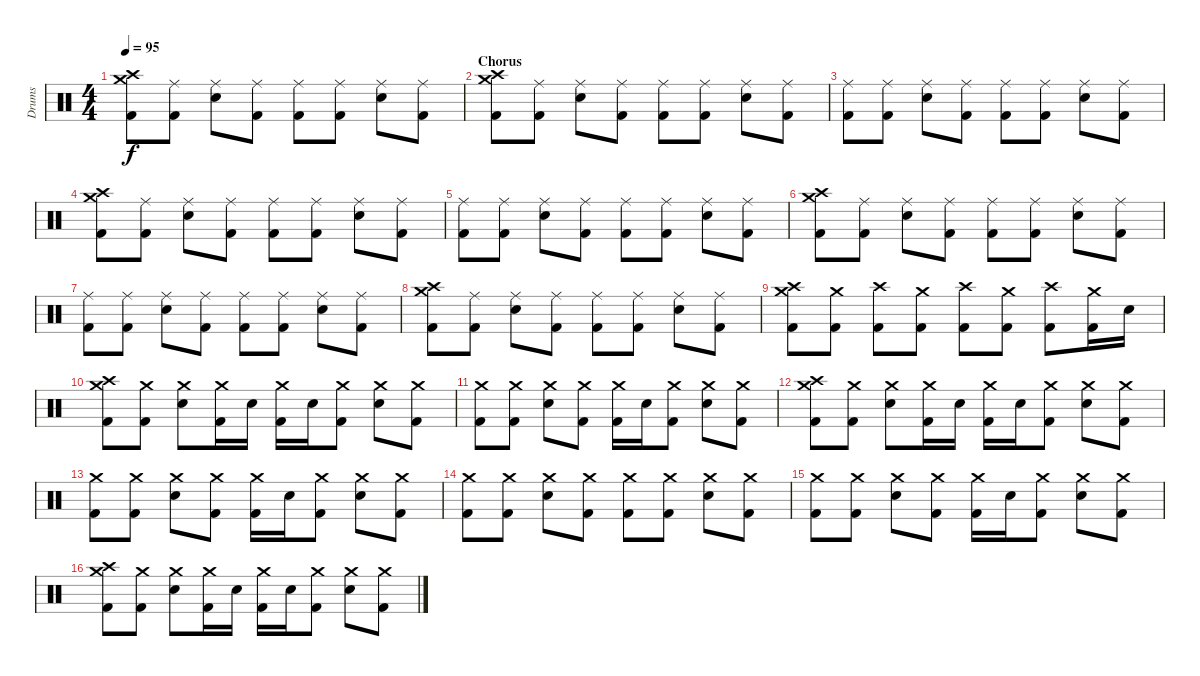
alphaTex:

\track ("Drums" "Drums") {instrument percussion}
\staff {score}
\articulation defaults
\ts (4 4)
\tempo 95
\clef neutral
\ks c
("Crash high (hit)" "Crash medium (hit)" "Kick (hit) 2").8{dy f} ("Ride (middle)" "Kick (hit) 2").8 ("Ride (middle)" "Snare (hit) 2").8 ("Ride (middle)" "Kick (hit) 2").8 ("Ride (middle)" "Kick (hit) 2").8 ("Ride (middle)" "Kick (hit) 2").8 ("Ride (middle)" "Snare (hit) 2").8 ("Ride (middle)" "Kick (hit) 2").8 |
\section ("" "Chorus")
("Crash high (hit)" "Crash medium (hit)" "Kick (hit) 2").8 ("Ride (middle)" "Kick (hit) 2").8 ("Ride (middle)" "Snare (hit) 2").8 ("Ride (middle)" "Kick (hit) 2").8 ("Ride (middle)" "Kick (hit) 2").8 ("Ride (middle)" "Kick (hit) 2").8 ("Ride (middle)" "Snare (hit) 2").8 ("Ride (middle)" "Kick (hit) 2").8 |
("Ride (middle)" "Kick (hit) 2").8 ("Ride (middle)" "Kick (hit) 2").8 ("Ride (middle)" "Snare (hit) 2").8 ("Ride (middle)" "Kick (hit) 2").8 ("Ride (middle)" "Kick (hit) 2").8 ("Ride (middle)" "Kick (hit) 2").8 ("Ride (middle)" "Snare (hit) 2").8 ("Ride (middle)" "Kick (hit) 2").8 |
("Crash high (hit)" "Crash medium (hit)" "Kick (hit) 2").8 ("Ride (middle)" "Kick (hit) 2").8 ("Ride (middle)" "Snare (hit) 2").8 ("Ride (middle)" "Kick (hit) 2").8 ("Ride (middle)" "Kick (hit) 2").8 ("Ride (middle)" "Kick (hit) 2").8 ("Ride (middle)" "Snare (hit) 2").8 ("Ride (middle)" "Kick (hit) 2").8 |
("Ride (middle)" "Kick (hit) 2").8 ("Ride (middle)" "Kick (hit) 2").8 ("Ride (middle)" "Snare (hit) 2").8 ("Ride (middle)" "Kick (hit) 2").8 ("Ride (middle)" "Kick (hit) 2").8 ("Ride (middle)" "Kick (hit) 2").8 ("Ride (middle)" "Snare (hit) 2").8 ("Ride (middle)" "Kick (hit) 2").8 |
("Crash high (hit)" "Crash medium (hit)" "Kick (hit) 2").8 ("Ride (middle)" "Kick (hit) 2").8 ("Ride (middle)" "Snare (hit) 2").8 ("Ride (middle)" "Kick (hit) 2").8 ("Ride (middle)" "Kick (hit) 2").8 ("Ride (middle)" "Kick (hit) 2").8 ("Ride (middle)" "Snare (hit) 2").8 ("Ride (middle)" "Kick (hit) 2").8 |
("Ride (middle)" "Kick (hit) 2").8 ("Ride (middle)" "Kick (hit) 2").8 ("Ride (middle)" "Snare (hit) 2").8 ("Ride (middle)" "Kick (hit) 2").8 ("Ride (middle)" "Kick (hit) 2").8 ("Ride (middle)" "Kick (hit) 2").8 ("Ride (middle)" "Snare (hit) 2").8 ("Ride (middle)" "Kick (hit) 2").8 |
("Crash high (hit)" "Crash medium (hit)" "Kick (hit) 2").8 ("Ride (middle)" "Kick (hit) 2").8 ("Ride (middle)" "Snare (hit) 2").8 ("Ride (middle)" "Kick (hit) 2").8 ("Ride (middle)" "Kick (hit) 2").8 ("Ride (middle)" "Kick (hit) 2").8 ("Ride (middle)" "Snare (hit) 2").8 ("Ride (middle)" "Kick (hit) 2").8 |
("Crash high (hit)" "Crash medium (hit)" "Kick (hit) 2").8 ("Crash medium (hit)" "Kick (hit) 2").8 ("Crash high (hit)" "Kick (hit) 2").8 ("Crash medium (hit)" "Kick (hit) 2").8 ("Crash high (hit)" "Kick (hit) 2").8 ("Crash medium (hit)" "Kick (hit) 2").8 ("Crash high (hit)" "Kick (hit) 2").8 ("Crash medium (hit)" "Kick (hit) 2").16 "Snare (hit) 2".16 |
("Crash high (hit)" "Crash medium (hit)" "Kick (hit) 2").8 ("Crash medium (hit)" "Kick (hit) 2").8 ("Crash medium (hit)" "Snare (hit) 2").8 ("Crash medium (hit)" "Kick (hit) 2").16 "Snare (hit) 2".16 ("Crash medium (hit)" "Kick (hit) 2").16 "Snare (hit) 2".16 ("Crash medium (hit)" "Kick (hit) 2").8 ("Crash medium (hit)" "Snare (hit) 2").8 ("Crash medium (hit)" "Kick (hit) 2").8 |
("Crash medium (hit)" "Kick (hit) 2").8 ("Crash medium (hit)" "Kick (hit) 2").8 ("Crash medium (hit)" "Snare (hit) 2").8 ("Crash medium (hit)" "Kick (hit) 2").8 ("Crash medium (hit)" "Kick (hit) 2").16 "Snare (hit) 2".16 ("Crash medium (hit)" "Kick (hit) 2").8 ("Crash medium (hit)" "Snare (hit) 2").8 ("Crash medium (hit)" "Kick (hit) 2").8 |
("Crash high (hit)" "Crash medium (hit)" "Kick (hit) 2").8 ("Crash medium (hit)" "Kick (hit) 2").8 ("Crash medium (hit)" "Snare (hit) 2").8 ("Crash medium (hit)" "Kick (hit) 2").16 "Snare (hit) 2".16 ("Crash medium (hit)" "Kick (hit) 2").16 "Snare (hit) 2".16 ("Crash medium (hit)" "Kick (hit) 2").8 ("Crash medium (hit)" "Snare (hit) 2").8 ("Crash medium (hit)" "Kick (hit) 2").8 |
("Crash medium (hit)" "Kick (hit) 2").8 ("Crash medium (hit)" "Kick (hit) 2").8 ("Crash medium (hit)" "Snare (hit) 2").8 ("Crash medium (hit)" "Kick (hit) 2").8 ("Crash medium (hit)" "Kick (hit) 2").16 "Snare (hit) 2".16 ("Crash medium (hit)" "Kick (hit) 2").8 ("Crash medium (hit)" "Snare (hit) 2").8 ("Crash medium (hit)" "Kick (hit) 2").8 |
("Crash medium (hit)" "Kick (hit) 2").8 ("Crash medium (hit)" "Kick (hit) 2").8 ("Crash medium (hit)" "Snare (hit) 2").8 ("Crash medium (hit)" "Kick (hit) 2").8 ("Crash medium (hit)" "Kick (hit) 2").8 ("Crash medium (hit)" "Kick (hit) 2").8 ("Crash medium (hit)" "Snare (hit) 2").8 ("Crash medium (hit)" "Kick (hit) 2").8 |
("Crash medium (hit)" "Kick (hit) 2").8 ("Crash medium (hit)" "Kick (hit) 2").8 ("Crash medium (hit)" "Snare (hit) 2").8 ("Crash medium (hit)" "Kick (hit) 2").8 ("Crash medium (hit)" "Kick (hit) 2").16 "Snare (hit) 2".16 ("Crash medium (hit)" "Kick (hit) 2").8 ("Crash medium (hit)" "Snare (hit) 2").8 ("Crash medium (hit)" "Kick (hit) 2").8 |
("Crash high (hit)" "Crash medium (hit)" "Kick (hit) 2").8 ("Crash medium (hit)" "Kick (hit) 2").8 ("Crash medium (hit)" "Snare (hit) 2").8 ("Crash medium (hit)" "Kick (hit) 2").16 "Snare (hit) 2".16 ("Crash medium (hit)" "Kick (hit) 2").16 "Snare (hit) 2".16 ("Crash medium (hit)" "Kick (hit) 2").8 ("Crash medium (hit)" "Snare (hit) 2").8 ("Crash medium (hit)" "Kick (hit) 2").8
